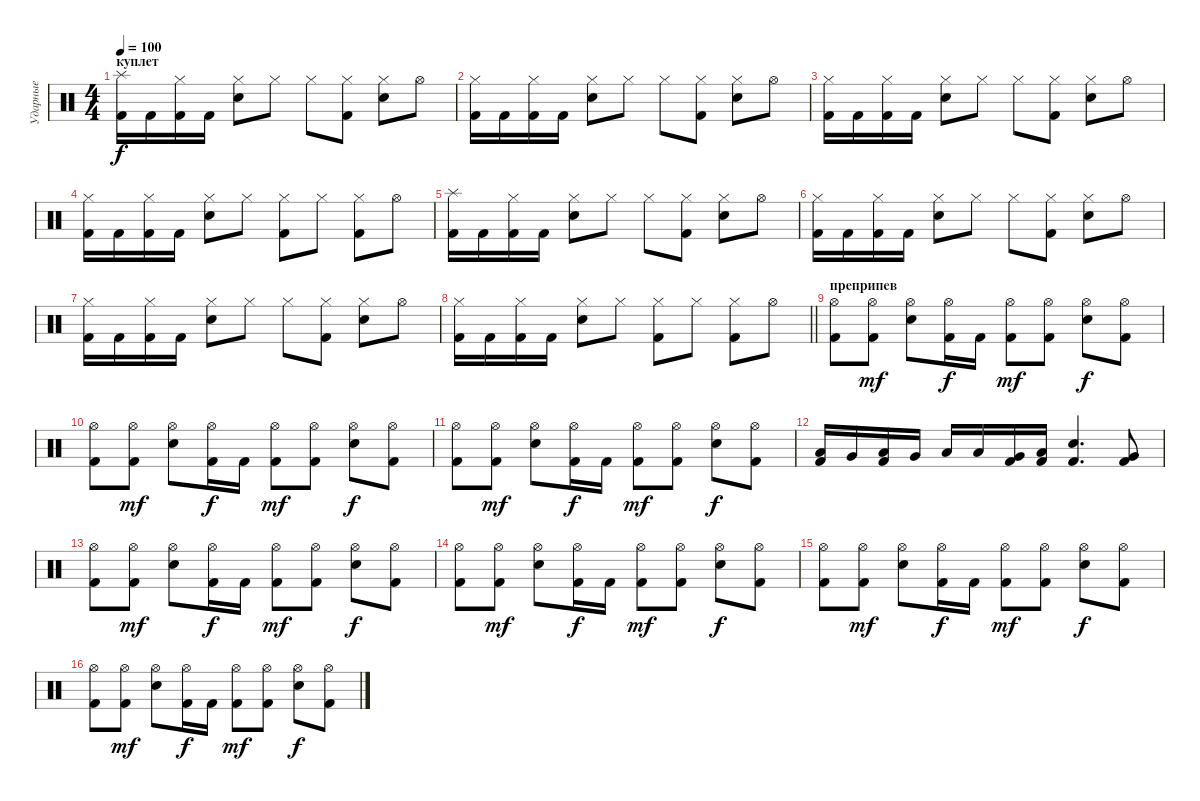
\track ("Ударные" "Ударные") {instrument percussion}
\staff {score}
\articulation defaults
\ts (4 4)
\section ("" "куплет")
\tempo 100
\clef neutral
\ks c
("Splash (hit)" "Kick (hit) 2").16{dy f} "Kick (hit) 2".16 ("Hi-Hat (closed)" "Kick (hit) 2").16 "Kick (hit) 2".16 ("Hi-Hat (closed)" "Snare (hit) 2").8 "Hi-Hat (closed)".8 "Hi-Hat (closed)".8 ("Hi-Hat (closed)" "Kick (hit) 2").8 ("Hi-Hat (closed)" "Snare (hit) 2").8 "Hi-Hat (open)".8 |
("Hi-Hat (closed)" "Kick (hit) 2").16 "Kick (hit) 2".16 ("Hi-Hat (closed)" "Kick (hit) 2").16 "Kick (hit) 2".16 ("Hi-Hat (closed)" "Snare (hit) 2").8 "Hi-Hat (closed)".8 "Hi-Hat (closed)".8 ("Hi-Hat (closed)" "Kick (hit) 2").8 ("Hi-Hat (closed)" "Snare (hit) 2").8 "Hi-Hat (open)".8 |
("Hi-Hat (closed)" "Kick (hit) 2").16 "Kick (hit) 2".16 ("Hi-Hat (closed)" "Kick (hit) 2").16 "Kick (hit) 2".16 ("Hi-Hat (closed)" "Snare (hit) 2").8 "Hi-Hat (closed)".8 "Hi-Hat (closed)".8 ("Hi-Hat (closed)" "Kick (hit) 2").8 ("Hi-Hat (closed)" "Snare (hit) 2").8 "Hi-Hat (open)".8 |
("Hi-Hat (closed)" "Kick (hit) 2").16 "Kick (hit) 2".16 ("Hi-Hat (closed)" "Kick (hit) 2").16 "Kick (hit) 2".16 ("Hi-Hat (closed)" "Snare (hit) 2").8 "Hi-Hat (closed)".8 ("Hi-Hat (closed)" "Kick (hit) 2").8 "Hi-Hat (closed)".8 ("Hi-Hat (closed)" "Kick (hit) 2").8 "Hi-Hat (open)".8 |
("Splash (hit)" "Kick (hit) 2").16 "Kick (hit) 2".16 ("Hi-Hat (closed)" "Kick (hit) 2").16 "Kick (hit) 2".16 ("Hi-Hat (closed)" "Snare (hit) 2").8 "Hi-Hat (closed)".8 "Hi-Hat (closed)".8 ("Hi-Hat (closed)" "Kick (hit) 2").8 ("Hi-Hat (closed)" "Snare (hit) 2").8 "Hi-Hat (open)".8 |
("Hi-Hat (closed)" "Kick (hit) 2").16 "Kick (hit) 2".16 ("Hi-Hat (closed)" "Kick (hit) 2").16 "Kick (hit) 2".16 ("Hi-Hat (closed)" "Snare (hit) 2").8 "Hi-Hat (closed)".8 "Hi-Hat (closed)".8 ("Hi-Hat (closed)" "Kick (hit) 2").8 ("Hi-Hat (closed)" "Snare (hit) 2").8 "Hi-Hat (open)".8 |
("Hi-Hat (closed)" "Kick (hit) 2").16 "Kick (hit) 2".16 ("Hi-Hat (closed)" "Kick (hit) 2").16 "Kick (hit) 2".16 ("Hi-Hat (closed)" "Snare (hit) 2").8 "Hi-Hat (closed)".8 "Hi-Hat (closed)".8 ("Hi-Hat (closed)" "Kick (hit) 2").8 ("Hi-Hat (closed)" "Snare (hit) 2").8 "Hi-Hat (open)".8 |
\barLineRight lightlight
("Hi-Hat (closed)" "Kick (hit) 2").16 "Kick (hit) 2".16 ("Hi-Hat (closed)" "Kick (hit) 2").16 "Kick (hit) 2".16 ("Hi-Hat (closed)" "Snare (hit) 2").8 "Hi-Hat (closed)".8 ("Hi-Hat (closed)" "Kick (hit) 2").8 "Hi-Hat (closed)".8 ("Hi-Hat (closed)" "Kick (hit) 2").8 "Hi-Hat (open)".8 |
\section ("" "преприпев")
("Hi-Hat (open)" "Kick (hit) 2").8 ("Hi-Hat (open)" "Kick (hit) 2").8{dy mf} ("Hi-Hat (open)" "Electric Snare (hit)").8 ("Hi-Hat (open)" "Kick (hit) 2").16{dy f} "Kick (hit) 2".16 ("Hi-Hat (open)" "Kick (hit) 2").8{dy mf} ("Hi-Hat (open)" "Kick (hit) 2").8 ("Hi-Hat (open)" "Electric Snare (hit)").8{dy f} ("Hi-Hat (open)" "Kick (hit) 2").8 |
("Hi-Hat (open)" "Kick (hit) 2").8 ("Hi-Hat (open)" "Kick (hit) 2").8{dy mf} ("Hi-Hat (open)" "Electric Snare (hit)").8 ("Hi-Hat (open)" "Kick (hit) 2").16{dy f} "Kick (hit) 2".16 ("Hi-Hat (open)" "Kick (hit) 2").8{dy mf} ("Hi-Hat (open)" "Kick (hit) 2").8 ("Hi-Hat (open)" "Electric Snare (hit)").8{dy f} ("Hi-Hat (open)" "Kick (hit) 2").8 |
("Hi-Hat (open)" "Kick (hit) 2").8 ("Hi-Hat (open)" "Kick (hit) 2").8{dy mf} ("Hi-Hat (open)" "Electric Snare (hit)").8 ("Hi-Hat (open)" "Kick (hit) 2").16{dy f} "Kick (hit) 2".16 ("Hi-Hat (open)" "Kick (hit) 2").8{dy mf} ("Hi-Hat (open)" "Kick (hit) 2").8 ("Hi-Hat (open)" "Electric Snare (hit)").8{dy f} ("Hi-Hat (open)" "Kick (hit) 2").8 |
("Low Tom (hit)" "Kick (hit) 2").16 "Very Low Tom (hit)".16 ("Low Tom (hit)" "Kick (hit) 2").16 "Very Low Tom (hit)".16 "Low Floor Tom (hit)".16 "Low Floor Tom (hit)".16 ("Very Low Tom (hit)" "Kick (hit) 2").16 ("Low Tom (hit)" "Kick (hit) 2").16 ("Electric Snare (hit)" "Kick (hit) 2").4{d} ("Very Low Tom (hit)" "Kick (hit) 2").8 |
("Hi-Hat (open)" "Kick (hit) 2").8 ("Hi-Hat (open)" "Kick (hit) 2").8{dy mf} ("Hi-Hat (open)" "Electric Snare (hit)").8 ("Hi-Hat (open)" "Kick (hit) 2").16{dy f} "Kick (hit) 2".16 ("Hi-Hat (open)" "Kick (hit) 2").8{dy mf} ("Hi-Hat (open)" "Kick (hit) 2").8 ("Hi-Hat (open)" "Electric Snare (hit)").8{dy f} ("Hi-Hat (open)" "Kick (hit) 2").8 |
("Hi-Hat (open)" "Kick (hit) 2").8 ("Hi-Hat (open)" "Kick (hit) 2").8{dy mf} ("Hi-Hat (open)" "Electric Snare (hit)").8 ("Hi-Hat (open)" "Kick (hit) 2").16{dy f} "Kick (hit) 2".16 ("Hi-Hat (open)" "Kick (hit) 2").8{dy mf} ("Hi-Hat (open)" "Kick (hit) 2").8 ("Hi-Hat (open)" "Electric Snare (hit)").8{dy f} ("Hi-Hat (open)" "Kick (hit) 2").8 |
("Hi-Hat (open)" "Kick (hit) 2").8 ("Hi-Hat (open)" "Kick (hit) 2").8{dy mf} ("Hi-Hat (open)" "Electric Snare (hit)").8 ("Hi-Hat (open)" "Kick (hit) 2").16{dy f} "Kick (hit) 2".16 ("Hi-Hat (open)" "Kick (hit) 2").8{dy mf} ("Hi-Hat (open)" "Kick (hit) 2").8 ("Hi-Hat (open)" "Electric Snare (hit)").8{dy f} ("Hi-Hat (open)" "Kick (hit) 2").8 |
("Hi-Hat (open)" "Kick (hit) 2").8 ("Hi-Hat (open)" "Kick (hit) 2").8{dy mf} ("Hi-Hat (open)" "Electric Snare (hit)").8 ("Hi-Hat (open)" "Kick (hit) 2").16{dy f} "Kick (hit) 2".16 ("Hi-Hat (open)" "Kick (hit) 2").8{dy mf} ("Hi-Hat (open)" "Kick (hit) 2").8 ("Hi-Hat (open)" "Electric Snare (hit)").8{dy f} ("Hi-Hat (open)" "Kick (hit) 2").8
